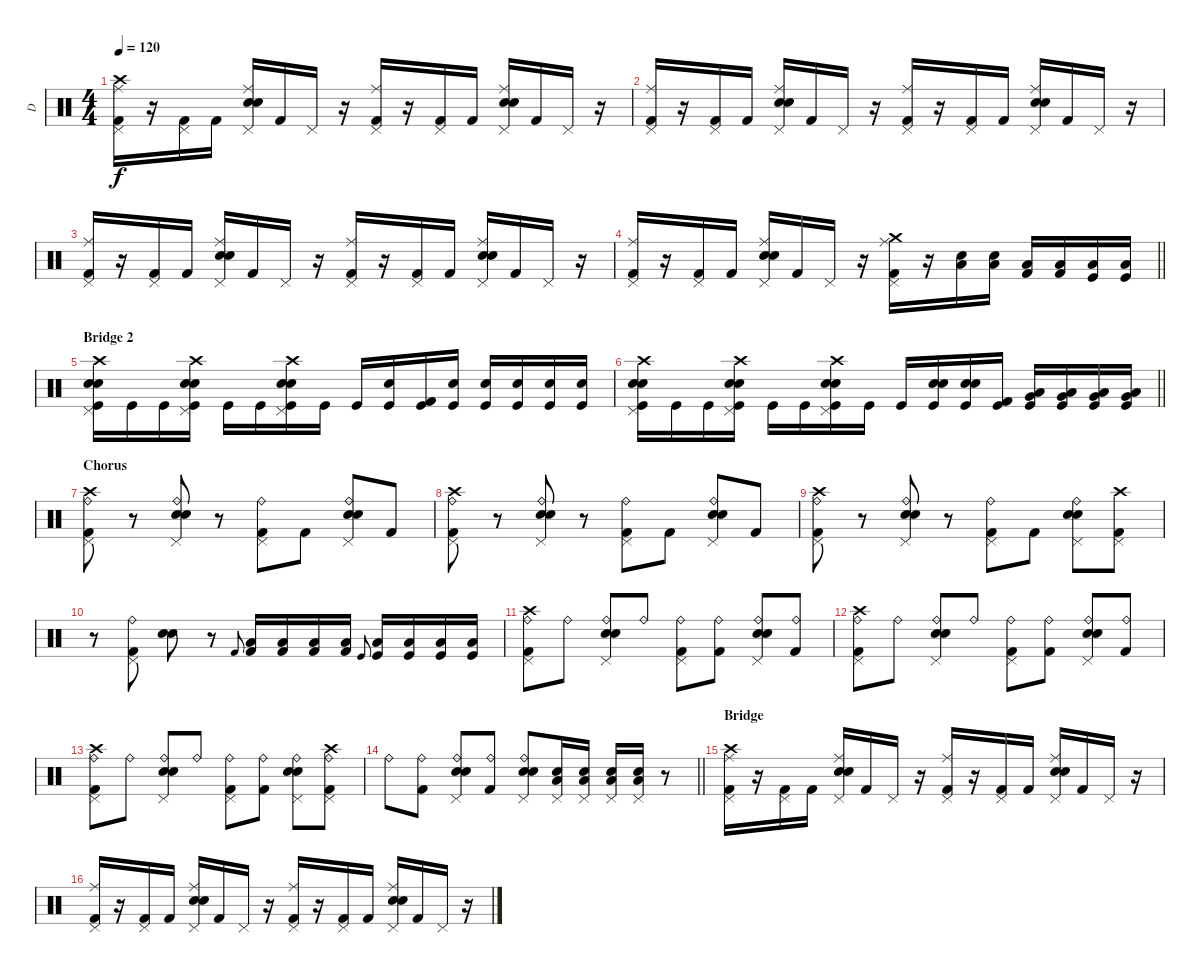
\track ("D" "D") {instrument percussion}
\staff {score}
\articulation defaults
\ts (4 4)
\tempo 120
\clef neutral
\ks c
("Crash high (hit)" "Kick (hit) 2" "Pedal Hi-Hat (hit)" "Ride (middle)").16{dy f} r.16 ("Kick (hit) 2" "Pedal Hi-Hat (hit)").16 "Kick (hit) 2".16 ("Electric Snare (hit)" "Electric Snare (hit)" "Pedal Hi-Hat (hit)" "Ride (middle)").16 "Kick (hit) 2".16 "Pedal Hi-Hat (hit)".16 r.16 ("Kick (hit) 2" "Pedal Hi-Hat (hit)" "Ride (middle)").16 r.16 ("Kick (hit) 2" "Pedal Hi-Hat (hit)").16 "Kick (hit) 2".16 ("Electric Snare (hit)" "Electric Snare (hit)" "Pedal Hi-Hat (hit)" "Ride (middle)").16 "Kick (hit) 2".16 "Pedal Hi-Hat (hit)".16 r.16 |
("Kick (hit) 2" "Pedal Hi-Hat (hit)" "Ride (middle)").16 r.16 ("Kick (hit) 2" "Pedal Hi-Hat (hit)").16 "Kick (hit) 2".16 ("Electric Snare (hit)" "Electric Snare (hit)" "Pedal Hi-Hat (hit)" "Ride (middle)").16 "Kick (hit) 2".16 "Pedal Hi-Hat (hit)".16 r.16 ("Kick (hit) 2" "Pedal Hi-Hat (hit)" "Ride (middle)").16 r.16 ("Kick (hit) 2" "Pedal Hi-Hat (hit)").16 "Kick (hit) 2".16 ("Electric Snare (hit)" "Electric Snare (hit)" "Pedal Hi-Hat (hit)" "Ride (middle)").16 "Kick (hit) 2".16 "Pedal Hi-Hat (hit)".16 r.16 |
("Kick (hit) 2" "Pedal Hi-Hat (hit)" "Ride (middle)").16 r.16 ("Kick (hit) 2" "Pedal Hi-Hat (hit)").16 "Kick (hit) 2".16 ("Electric Snare (hit)" "Electric Snare (hit)" "Pedal Hi-Hat (hit)" "Ride (middle)").16 "Kick (hit) 2".16 "Pedal Hi-Hat (hit)".16 r.16 ("Kick (hit) 2" "Pedal Hi-Hat (hit)" "Ride (middle)").16 r.16 ("Kick (hit) 2" "Pedal Hi-Hat (hit)").16 "Kick (hit) 2".16 ("Electric Snare (hit)" "Electric Snare (hit)" "Pedal Hi-Hat (hit)" "Ride (middle)").16 "Kick (hit) 2".16 "Pedal Hi-Hat (hit)".16 r.16 |
\barLineRight lightlight
("Kick (hit) 2" "Pedal Hi-Hat (hit)" "Ride (middle)").16 r.16 ("Kick (hit) 2" "Pedal Hi-Hat (hit)").16 "Kick (hit) 2".16 ("Electric Snare (hit)" "Electric Snare (hit)" "Pedal Hi-Hat (hit)" "Ride (middle)").16 "Kick (hit) 2".16 "Pedal Hi-Hat (hit)".16 r.16 ("Crash medium (hit)" "Kick (hit) 2" "Pedal Hi-Hat (hit)" "Ride (middle)").16 r.16 ("Electric Snare (hit)" "Low Floor Tom (hit)").16 ("Electric Snare (hit)" "Low Floor Tom (hit)").16 ("Kick (hit) 2" "Low Floor Tom (hit)").16 ("Kick (hit) 2" "Low Floor Tom (hit)").16 ("Kick (hit)" "Low Floor Tom (hit)").16 ("Kick (hit)" "Low Floor Tom (hit)").16 |
\section ("" "Bridge 2")
("Crash high (hit)" "Electric Snare (hit)" "Electric Snare (hit)" "Kick (hit)" "Pedal Hi-Hat (hit)").16 "Kick (hit)".16 "Kick (hit)".16 ("Crash high (hit)" "Electric Snare (hit)" "Electric Snare (hit)" "Kick (hit)" "Pedal Hi-Hat (hit)").16 "Kick (hit)".16 "Kick (hit)".16 ("Crash high (hit)" "Electric Snare (hit)" "Electric Snare (hit)" "Kick (hit)" "Pedal Hi-Hat (hit)").16 "Kick (hit)".16 "Kick (hit)".16 ("Electric Snare (hit)" "Kick (hit)").16 ("Kick (hit) 2" "Kick (hit)").16 ("Electric Snare (hit)" "Kick (hit)").16 ("Electric Snare (hit)" "Kick (hit)").16 ("Electric Snare (hit)" "Kick (hit)").16 ("Electric Snare (hit)" "Kick (hit)").16 ("Electric Snare (hit)" "Kick (hit)").16 |
\barLineRight lightlight
("Crash high (hit)" "Electric Snare (hit)" "Electric Snare (hit)" "Kick (hit)" "Pedal Hi-Hat (hit)").16 "Kick (hit)".16 "Kick (hit)".16 ("Crash high (hit)" "Electric Snare (hit)" "Electric Snare (hit)" "Kick (hit)" "Pedal Hi-Hat (hit)").16 "Kick (hit)".16 "Kick (hit)".16 ("Crash high (hit)" "Electric Snare (hit)" "Electric Snare (hit)" "Kick (hit)" "Pedal Hi-Hat (hit)").16 "Kick (hit)".16 "Kick (hit)".16 ("Electric Snare (hit)" "Electric Snare (hit)" "Kick (hit)").16 ("Electric Snare (hit)" "Electric Snare (hit)" "Kick (hit)").16 ("Kick (hit) 2" "Kick (hit)").16 ("Very Low Tom (hit)" "Low Floor Tom (hit)" "Kick (hit)").16 ("Very Low Tom (hit)" "Low Floor Tom (hit)" "Kick (hit)").16 ("Very Low Tom (hit)" "Low Floor Tom (hit)" "Kick (hit)").16 ("Very Low Tom (hit)" "Low Floor Tom (hit)" "Kick (hit)").16 |
\section ("" "Chorus")
("Crash high (hit)" "Kick (hit) 2" "Ride (bell)" "Pedal Hi-Hat (hit)").8 r.8 ("Electric Snare (hit)" "Electric Snare (hit)" "Ride (bell)" "Pedal Hi-Hat (hit)").8 r.8 ("Kick (hit) 2" "Ride (bell)" "Pedal Hi-Hat (hit)").8 "Kick (hit) 2".8 ("Electric Snare (hit)" "Electric Snare (hit)" "Ride (bell)" "Pedal Hi-Hat (hit)").8 "Kick (hit) 2".8 |
("Crash high (hit)" "Kick (hit) 2" "Ride (bell)" "Pedal Hi-Hat (hit)").8 r.8 ("Electric Snare (hit)" "Electric Snare (hit)" "Ride (bell)" "Pedal Hi-Hat (hit)").8 r.8 ("Kick (hit) 2" "Ride (bell)" "Pedal Hi-Hat (hit)").8 "Kick (hit) 2".8 ("Electric Snare (hit)" "Electric Snare (hit)" "Ride (bell)" "Pedal Hi-Hat (hit)").8 "Kick (hit) 2".8 |
("Crash high (hit)" "Kick (hit) 2" "Ride (bell)" "Pedal Hi-Hat (hit)").8 r.8 ("Electric Snare (hit)" "Electric Snare (hit)" "Ride (bell)" "Pedal Hi-Hat (hit)").8 r.8 ("Kick (hit) 2" "Ride (bell)" "Pedal Hi-Hat (hit)").8 "Kick (hit) 2".8 ("Electric Snare (hit)" "Electric Snare (hit)" "Ride (bell)" "Pedal Hi-Hat (hit)").8 ("Crash high (hit)" "Kick (hit) 2" "Pedal Hi-Hat (hit)").8 |
r.8 ("Kick (hit) 2" "Ride (bell)" "Pedal Hi-Hat (hit)").8 ("Electric Snare (hit)" "Electric Snare (hit)").8 r.8 "Kick (hit) 2".8{gr onbeat} ("Kick (hit) 2" "Low Floor Tom (hit)").16 ("Kick (hit) 2" "Low Floor Tom (hit)").16 ("Kick (hit) 2" "Low Floor Tom (hit)").16 ("Kick (hit) 2" "Low Floor Tom (hit)").16 "Kick (hit)".8{gr onbeat} ("Kick (hit)" "Low Floor Tom (hit)").16 ("Kick (hit)" "Low Floor Tom (hit)").16 ("Kick (hit)" "Low Floor Tom (hit)").16 ("Kick (hit)" "Low Floor Tom (hit)").16 |
("Crash high (hit)" "Kick (hit) 2" "Ride (bell)" "Pedal Hi-Hat (hit)").8 "Ride (bell)".8 ("Electric Snare (hit)" "Electric Snare (hit)" "Ride (bell)" "Pedal Hi-Hat (hit)").8 "Ride (bell)".8 ("Kick (hit) 2" "Ride (bell)" "Pedal Hi-Hat (hit)").8 ("Kick (hit) 2" "Ride (bell)").8 ("Electric Snare (hit)" "Electric Snare (hit)" "Ride (bell)" "Pedal Hi-Hat (hit)").8 ("Kick (hit) 2" "Ride (bell)").8 |
("Crash high (hit)" "Kick (hit) 2" "Ride (bell)" "Pedal Hi-Hat (hit)").8 "Ride (bell)".8 ("Electric Snare (hit)" "Electric Snare (hit)" "Ride (bell)" "Pedal Hi-Hat (hit)").8 "Ride (bell)".8 ("Kick (hit) 2" "Ride (bell)" "Pedal Hi-Hat (hit)").8 ("Kick (hit) 2" "Ride (bell)").8 ("Electric Snare (hit)" "Electric Snare (hit)" "Ride (bell)" "Pedal Hi-Hat (hit)").8 ("Kick (hit) 2" "Ride (bell)").8 |
("Crash high (hit)" "Kick (hit) 2" "Ride (bell)" "Pedal Hi-Hat (hit)").8 "Ride (bell)".8 ("Electric Snare (hit)" "Electric Snare (hit)" "Ride (bell)" "Pedal Hi-Hat (hit)").8 "Ride (bell)".8 ("Kick (hit) 2" "Ride (bell)" "Pedal Hi-Hat (hit)").8 ("Kick (hit) 2" "Ride (bell)").8 ("Electric Snare (hit)" "Electric Snare (hit)" "Ride (bell)" "Pedal Hi-Hat (hit)").8 ("Crash high (hit)" "Kick (hit) 2" "Ride (bell)" "Pedal Hi-Hat (hit)").8 |
\barLineRight lightlight "Ride (bell)".8
("Kick (hit) 2" "Ride (bell)").8 ("Electric Snare (hit)" "Electric Snare (hit)" "Pedal Hi-Hat (hit)" "Ride (bell)").8 ("Kick (hit) 2" "Ride (bell)").8 ("Electric Snare (hit)" "Electric Snare (hit)" "Pedal Hi-Hat (hit)" "Ride (bell)").8 ("Electric Snare (hit)" "Low Floor Tom (hit)" "Pedal Hi-Hat (hit)").16 ("Electric Snare (hit)" "Low Floor Tom (hit)" "Pedal Hi-Hat (hit)").16 ("Electric Snare (hit)" "Low Floor Tom (hit)" "Pedal Hi-Hat (hit)").16 ("Electric Snare (hit)" "Low Floor Tom (hit)" "Pedal Hi-Hat (hit)").16 r.8 |
\section ("" "Bridge")
("Crash high (hit)" "Kick (hit) 2" "Pedal Hi-Hat (hit)" "Ride (middle)").16 r.16 ("Kick (hit) 2" "Pedal Hi-Hat (hit)").16 "Kick (hit) 2".16 ("Electric Snare (hit)" "Electric Snare (hit)" "Pedal Hi-Hat (hit)" "Ride (middle)").16 "Kick (hit) 2".16 "Pedal Hi-Hat (hit)".16 r.16 ("Kick (hit) 2" "Pedal Hi-Hat (hit)" "Ride (middle)").16 r.16 ("Kick (hit) 2" "Pedal Hi-Hat (hit)").16 "Kick (hit) 2".16 ("Electric Snare (hit)" "Electric Snare (hit)" "Pedal Hi-Hat (hit)" "Ride (middle)").16 "Kick (hit) 2".16 "Pedal Hi-Hat (hit)".16 r.16 |
("Kick (hit) 2" "Pedal Hi-Hat (hit)" "Ride (middle)").16 r.16 ("Kick (hit) 2" "Pedal Hi-Hat (hit)").16 "Kick (hit) 2".16 ("Electric Snare (hit)" "Electric Snare (hit)" "Pedal Hi-Hat (hit)" "Ride (middle)").16 "Kick (hit) 2".16 "Pedal Hi-Hat (hit)".16 r.16 ("Kick (hit) 2" "Pedal Hi-Hat (hit)" "Ride (middle)").16 r.16 ("Kick (hit) 2" "Pedal Hi-Hat (hit)").16 "Kick (hit) 2".16 ("Electric Snare (hit)" "Electric Snare (hit)" "Pedal Hi-Hat (hit)" "Ride (middle)").16 "Kick (hit) 2".16 "Pedal Hi-Hat (hit)".16 r.16
